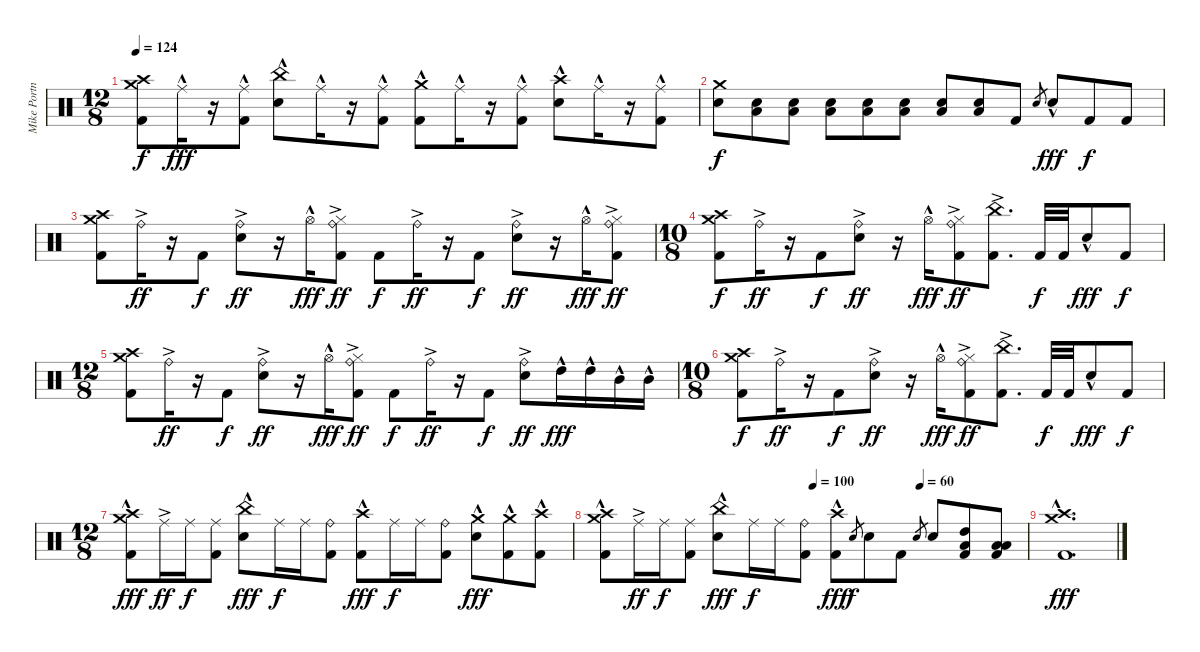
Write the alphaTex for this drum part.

\track ("Mike Portnoy Drums" "Mike Portn") {instrument percussion}
\staff {score}
\articulation defaults
\ts (12 8)
\tempo 124
\clef neutral
\ks c
("Crash medium (hit)" "Crash high (hit)" "Kick (hit) 2").8{dy f} "Ride (middle)"{hac}.16{dy fff} r.16 ("Ride (middle)"{hac} "Kick (hit) 2").8 ("China (hit)"{hac} "Electric Snare (hit)").8 "Ride (middle)"{hac}.16 r.16 ("Ride (middle)"{hac} "Kick (hit) 2").8 ("Crash medium (hit)"{hac} "Kick (hit) 2").8 "Ride (middle)"{hac}.16 r.16 ("Ride (middle)"{hac} "Kick (hit) 2").8 ("Crash high (hit)"{hac} "Electric Snare (hit)").8 "Ride (middle)"{hac}.16 r.16 ("Ride (middle)"{hac} "Kick (hit) 2").8 |
("Crash medium (hit)" "Electric Snare (hit)").8{dy f} ("Electric Snare (hit)" "Low Floor Tom (hit)").8 ("Electric Snare (hit)" "Low Floor Tom (hit)").8 ("Electric Snare (hit)" "Low Floor Tom (hit)").8 ("Electric Snare (hit)" "Low Floor Tom (hit)").8 ("Electric Snare (hit)" "Low Floor Tom (hit)").8 ("Electric Snare (hit)" "Low Floor Tom (hit)").8 ("Electric Snare (hit)" "Low Floor Tom (hit)").8 "Kick (hit) 2".8 "Electric Snare (hit)".8{gr} "Electric Snare (hit)"{hac}.8{dy fff} "Kick (hit) 2".8{dy f} "Kick (hit) 2".8 |
("Crash medium (hit)" "Crash high (hit)" "Kick (hit) 2").8 "Ride (bell)"{ac}.16{dy ff} r.16 "Kick (hit) 2".8{dy f} ("Ride (bell)"{ac} "Electric Snare (hit)").8{dy ff} r.16 "Hi-Hat (open)"{hac}.16{dy fff} ("Ride (bell)"{ac} "Hi-Hat (closed)" "Kick (hit) 2").8{dy ff} "Kick (hit) 2".8{dy f} "Ride (bell)"{ac}.16{dy ff} r.16 "Kick (hit) 2".8{dy f} ("Ride (bell)"{ac} "Electric Snare (hit)").8{dy ff} r.16 "Hi-Hat (open)"{hac}.16{dy fff} ("Ride (bell)"{ac} "Hi-Hat (closed)" "Kick (hit) 2").8{dy ff} |
\ts (10 8)
("Crash medium (hit)" "Crash high (hit)" "Kick (hit) 2").8{dy f} "Ride (bell)"{ac}.16{dy ff} r.16 "Kick (hit) 2".8{dy f} ("Ride (bell)"{ac} "Electric Snare (hit)").8{dy ff} r.16 "Hi-Hat (open)"{hac}.16{dy fff} ("Ride (bell)"{ac} "Hi-Hat (closed)" "Kick (hit) 2").8{dy ff} ("China (hit)"{ac} "Kick (hit) 2").8{d} "Kick (hit) 2".32{dy f} "Kick (hit) 2".32 "Electric Snare (hit)"{hac}.8{dy fff} "Kick (hit) 2".8{dy f} |
\ts (12 8)
("Crash medium (hit)" "Crash high (hit)" "Kick (hit) 2").8 "Ride (bell)"{ac}.16{dy ff} r.16 "Kick (hit) 2".8{dy f} ("Ride (bell)"{ac} "Electric Snare (hit)").8{dy ff} r.16 "Hi-Hat (open)"{hac}.16{dy fff} ("Ride (bell)"{ac} "Hi-Hat (closed)" "Kick (hit) 2").8{dy ff} "Kick (hit) 2".8{dy f} "Ride (bell)"{ac}.16{dy ff} r.16 "Kick (hit) 2".8{dy f} ("Ride (bell)"{ac} "Electric Snare (hit)").8{dy ff} "High Tom (hit)"{hac}.16{dy fff} "High Tom (hit)"{hac}.16 "Mid Tom (hit)"{hac}.16 "Mid Tom (hit)"{hac}.16 |
\ts (10 8)
("Crash medium (hit)" "Crash high (hit)" "Kick (hit) 2").8{dy f} "Ride (bell)"{ac}.16{dy ff} r.16 "Kick (hit) 2".8{dy f} ("Ride (bell)"{ac} "Electric Snare (hit)").8{dy ff} r.16 "Hi-Hat (open)"{hac}.16{dy fff} ("Ride (bell)"{ac} "Hi-Hat (closed)" "Kick (hit) 2").8{dy ff} ("China (hit)"{ac} "Kick (hit) 2").8{d} "Kick (hit) 2".32{dy f} "Kick (hit) 2".32 "Electric Snare (hit)"{hac}.8{dy fff} "Kick (hit) 2".8{dy f} |
\ts (12 8)
("Crash medium (hit)" "Crash high (hit)" "Kick (hit) 2"{hac}).8{dy fff} "Ride (middle)"{ac}.16{dy ff} "Ride (middle)".16{dy f} ("Ride (middle)" "Kick (hit) 2").8 ("China (hit)"{hac} "Electric Snare (hit)"{hac}).8{dy fff} "Ride (middle)".16{dy f} "Ride (middle)".16 ("Ride (bell)" "Kick (hit) 2").8 ("Crash high (hit)"{hac} "Kick (hit) 2").8{dy fff} "Ride (middle)".16{dy f} "Ride (middle)".16 ("Ride (bell)" "Kick (hit) 2").8 ("Crash medium (hit)"{hac} "Electric Snare (hit)"{hac}).8{dy fff} ("Crash medium (hit)" "Kick (hit) 2"{hac}).8 ("Crash high (hit)" "Kick (hit) 2"{hac}).8 |
\tempo (100 0.5)
\tempo (90 0.75)
\tempo (60 0.75)
("Crash medium (hit)" "Crash high (hit)" "Kick (hit) 2"{hac}).8 "Ride (middle)"{ac}.16{dy ff} "Ride (middle)".16{dy f} ("Ride (middle)" "Kick (hit) 2").8 ("China (hit)"{hac} "Electric Snare (hit)"{hac}).8{dy fff} "Ride (middle)".16{dy f} "Ride (middle)".16 ("Ride (bell)" "Kick (hit) 2").8 ("Crash high (hit)"{hac} "Kick (hit) 2").8{dy fff} "Electric Snare (hit)".8{gr dy f} "Electric Snare (hit)".8 "Kick (hit) 2".8 "Electric Snare (hit)".8{gr} "Electric Snare (hit)".8 ("High Tom (hit)" "Low Floor Tom (hit)" "Kick (hit) 2").8 ("Low Tom (hit)" "Low Floor Tom (hit)" "Kick (hit) 2").8 |
("Crash medium (hit)"{hac} "Crash high (hit)"{hac} "Kick (hit) 2"{hac}).1{d dy fff}
